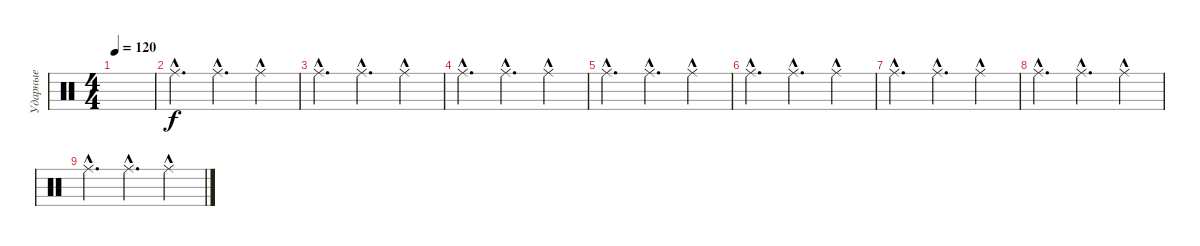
\track ("Ударные" "Ударные") {instrument percussion}
\staff {score}
\articulation defaults
\ts (4 4)
\tempo 120
\clef neutral
\ks c
|
"Ride (middle)"{hac}.4{d} "Ride (middle)"{hac}.4{d} "Ride (middle)"{hac}.4 |
"Ride (middle)"{hac}.4{d} "Ride (middle)"{hac}.4{d} "Ride (middle)"{hac}.4 |
"Ride (middle)"{hac}.4{d} "Ride (middle)"{hac}.4{d} "Ride (middle)"{hac}.4 |
"Ride (middle)"{hac}.4{d} "Ride (middle)"{hac}.4{d} "Ride (middle)"{hac}.4 |
"Ride (middle)"{hac}.4{d} "Ride (middle)"{hac}.4{d} "Ride (middle)"{hac}.4 |
"Ride (middle)"{hac}.4{d} "Ride (middle)"{hac}.4{d} "Ride (middle)"{hac}.4 |
"Ride (middle)"{hac}.4{d} "Ride (middle)"{hac}.4{d} "Ride (middle)"{hac}.4 |
"Ride (middle)"{hac}.4{d} "Ride (middle)"{hac}.4{d} "Ride (middle)"{hac}.4
